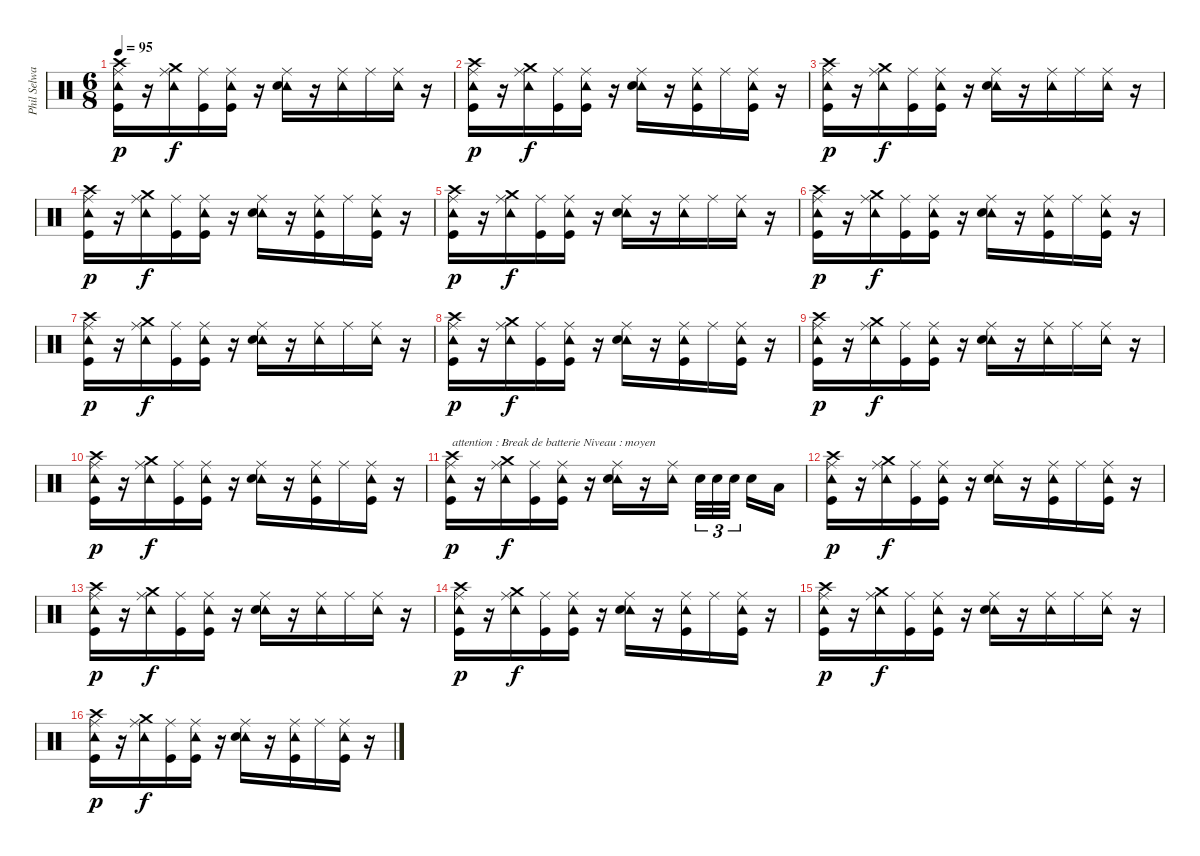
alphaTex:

\track ("Phil Selway (Percussions)" "Phil Selwa") {instrument percussion}
\staff {score}
\articulation defaults
\ts (6 8)
\tempo 95
\clef neutral
\ks c
("Ride (middle)" "Tambourine (hit)" "Crash high (hit)" "Kick (hit)").16{dy p} r.16 ("Ride (middle)" "Tambourine (hit)" "Crash medium (hit)").16{dy f} ("Ride (middle)" "Kick (hit)").16 ("Ride (middle)" "Tambourine (hit)" "Kick (hit)").16 r.16 ("Ride (middle)" "Tambourine (hit)" "Electric Snare (hit)").16 r.16 ("Ride (middle)" "Tambourine (hit)").16 "Ride (middle)".16 ("Ride (middle)" "Tambourine (hit)").16 r.16 |
("Ride (middle)" "Tambourine (hit)" "Crash high (hit)" "Kick (hit)").16{dy p} r.16 ("Ride (middle)" "Tambourine (hit)" "Crash medium (hit)").16{dy f} ("Ride (middle)" "Kick (hit)").16 ("Ride (middle)" "Tambourine (hit)" "Kick (hit)").16 r.16 ("Ride (middle)" "Tambourine (hit)" "Electric Snare (hit)").16 r.16 ("Ride (middle)" "Tambourine (hit)" "Kick (hit)").16 "Ride (middle)".16 ("Ride (middle)" "Tambourine (hit)" "Kick (hit)").16 r.16 |
("Ride (middle)" "Tambourine (hit)" "Crash high (hit)" "Kick (hit)").16{dy p} r.16 ("Ride (middle)" "Tambourine (hit)" "Crash medium (hit)").16{dy f} ("Ride (middle)" "Kick (hit)").16 ("Ride (middle)" "Tambourine (hit)" "Kick (hit)").16 r.16 ("Ride (middle)" "Tambourine (hit)" "Electric Snare (hit)").16 r.16 ("Ride (middle)" "Tambourine (hit)").16 "Ride (middle)".16 ("Ride (middle)" "Tambourine (hit)").16 r.16 |
("Ride (middle)" "Tambourine (hit)" "Crash high (hit)" "Kick (hit)").16{dy p} r.16 ("Ride (middle)" "Tambourine (hit)" "Crash medium (hit)").16{dy f} ("Ride (middle)" "Kick (hit)").16 ("Ride (middle)" "Tambourine (hit)" "Kick (hit)").16 r.16 ("Ride (middle)" "Tambourine (hit)" "Electric Snare (hit)").16 r.16 ("Ride (middle)" "Tambourine (hit)" "Kick (hit)").16 "Ride (middle)".16 ("Ride (middle)" "Tambourine (hit)" "Kick (hit)").16 r.16 |
("Ride (middle)" "Tambourine (hit)" "Crash high (hit)" "Kick (hit)").16{dy p} r.16 ("Ride (middle)" "Tambourine (hit)" "Crash medium (hit)").16{dy f} ("Ride (middle)" "Kick (hit)").16 ("Ride (middle)" "Tambourine (hit)" "Kick (hit)").16 r.16 ("Ride (middle)" "Tambourine (hit)" "Electric Snare (hit)").16 r.16 ("Ride (middle)" "Tambourine (hit)").16 "Ride (middle)".16 ("Ride (middle)" "Tambourine (hit)").16 r.16 |
("Ride (middle)" "Tambourine (hit)" "Crash high (hit)" "Kick (hit)").16{dy p} r.16 ("Ride (middle)" "Tambourine (hit)" "Crash medium (hit)").16{dy f} ("Ride (middle)" "Kick (hit)").16 ("Ride (middle)" "Tambourine (hit)" "Kick (hit)").16 r.16 ("Ride (middle)" "Tambourine (hit)" "Electric Snare (hit)").16 r.16 ("Ride (middle)" "Tambourine (hit)" "Kick (hit)").16 "Ride (middle)".16 ("Ride (middle)" "Tambourine (hit)" "Kick (hit)").16 r.16 |
("Ride (middle)" "Tambourine (hit)" "Crash high (hit)" "Kick (hit)").16{dy p} r.16 ("Ride (middle)" "Tambourine (hit)" "Crash medium (hit)").16{dy f} ("Ride (middle)" "Kick (hit)").16 ("Ride (middle)" "Tambourine (hit)" "Kick (hit)").16 r.16 ("Ride (middle)" "Tambourine (hit)" "Electric Snare (hit)").16 r.16 ("Ride (middle)" "Tambourine (hit)").16 "Ride (middle)".16 ("Ride (middle)" "Tambourine (hit)").16 r.16 |
("Ride (middle)" "Tambourine (hit)" "Crash high (hit)" "Kick (hit)").16{dy p} r.16 ("Ride (middle)" "Tambourine (hit)" "Crash medium (hit)").16{dy f} ("Ride (middle)" "Kick (hit)").16 ("Ride (middle)" "Tambourine (hit)" "Kick (hit)").16 r.16 ("Ride (middle)" "Tambourine (hit)" "Electric Snare (hit)").16 r.16 ("Ride (middle)" "Tambourine (hit)" "Kick (hit)").16 "Ride (middle)".16 ("Ride (middle)" "Tambourine (hit)" "Kick (hit)").16 r.16 |
("Ride (middle)" "Tambourine (hit)" "Crash high (hit)" "Kick (hit)").16{dy p} r.16 ("Ride (middle)" "Tambourine (hit)" "Crash medium (hit)").16{dy f} ("Ride (middle)" "Kick (hit)").16 ("Ride (middle)" "Tambourine (hit)" "Kick (hit)").16 r.16 ("Ride (middle)" "Tambourine (hit)" "Electric Snare (hit)").16 r.16 ("Ride (middle)" "Tambourine (hit)").16 "Ride (middle)".16 ("Ride (middle)" "Tambourine (hit)").16 r.16 |
("Ride (middle)" "Tambourine (hit)" "Crash high (hit)" "Kick (hit)").16{dy p} r.16 ("Ride (middle)" "Tambourine (hit)" "Crash medium (hit)").16{dy f} ("Ride (middle)" "Kick (hit)").16 ("Ride (middle)" "Tambourine (hit)" "Kick (hit)").16 r.16 ("Ride (middle)" "Tambourine (hit)" "Electric Snare (hit)").16 r.16 ("Ride (middle)" "Tambourine (hit)" "Kick (hit)").16 "Ride (middle)".16 ("Ride (middle)" "Tambourine (hit)" "Kick (hit)").16 r.16 |
("Ride (middle)" "Tambourine (hit)" "Crash high (hit)" "Kick (hit)").16{txt "attention : Break de batterie Niveau : moyen " dy p} r.16 ("Ride (middle)" "Tambourine (hit)" "Crash medium (hit)").16{dy f} ("Ride (middle)" "Kick (hit)").16 ("Ride (middle)" "Tambourine (hit)" "Kick (hit)").16 r.16 ("Ride (middle)" "Tambourine (hit)" "Electric Snare (hit)").16 r.16 ("Ride (middle)" "Tambourine (hit)").16{beam splitsecondary} "Electric Snare (hit)".32{tu (3 2)} "Electric Snare (hit)".32{tu (3 2)} "Electric Snare (hit)".32{tu (3 2) beam splitsecondary} "Snare (hit) 2".16 "Low Tom (hit)".16 |
("Ride (middle)" "Tambourine (hit)" "Crash high (hit)" "Kick (hit)").16{dy p} r.16 ("Ride (middle)" "Tambourine (hit)" "Crash medium (hit)").16{dy f} ("Ride (middle)" "Kick (hit)").16 ("Ride (middle)" "Tambourine (hit)" "Kick (hit)").16 r.16 ("Ride (middle)" "Tambourine (hit)" "Electric Snare (hit)").16 r.16 ("Ride (middle)" "Tambourine (hit)" "Kick (hit)").16 "Ride (middle)".16 ("Ride (middle)" "Tambourine (hit)" "Kick (hit)").16 r.16 |
("Ride (middle)" "Tambourine (hit)" "Crash high (hit)" "Kick (hit)").16{dy p} r.16 ("Ride (middle)" "Tambourine (hit)" "Crash medium (hit)").16{dy f} ("Ride (middle)" "Kick (hit)").16 ("Ride (middle)" "Tambourine (hit)" "Kick (hit)").16 r.16 ("Ride (middle)" "Tambourine (hit)" "Electric Snare (hit)").16 r.16 ("Ride (middle)" "Tambourine (hit)").16 "Ride (middle)".16 ("Ride (middle)" "Tambourine (hit)").16 r.16 |
("Ride (middle)" "Tambourine (hit)" "Crash high (hit)" "Kick (hit)").16{dy p} r.16 ("Ride (middle)" "Tambourine (hit)" "Crash medium (hit)").16{dy f} ("Ride (middle)" "Kick (hit)").16 ("Ride (middle)" "Tambourine (hit)" "Kick (hit)").16 r.16 ("Ride (middle)" "Tambourine (hit)" "Electric Snare (hit)").16 r.16 ("Ride (middle)" "Tambourine (hit)" "Kick (hit)").16 "Ride (middle)".16 ("Ride (middle)" "Tambourine (hit)" "Kick (hit)").16 r.16 |
("Ride (middle)" "Tambourine (hit)" "Crash high (hit)" "Kick (hit)").16{dy p} r.16 ("Ride (middle)" "Tambourine (hit)" "Crash medium (hit)").16{dy f} ("Ride (middle)" "Kick (hit)").16 ("Ride (middle)" "Tambourine (hit)" "Kick (hit)").16 r.16 ("Ride (middle)" "Tambourine (hit)" "Electric Snare (hit)").16 r.16 ("Ride (middle)" "Tambourine (hit)").16 "Ride (middle)".16 ("Ride (middle)" "Tambourine (hit)").16 r.16 |
("Ride (middle)" "Tambourine (hit)" "Crash high (hit)" "Kick (hit)").16{dy p} r.16 ("Ride (middle)" "Tambourine (hit)" "Crash medium (hit)").16{dy f} ("Ride (middle)" "Kick (hit)").16 ("Ride (middle)" "Tambourine (hit)" "Kick (hit)").16 r.16 ("Ride (middle)" "Tambourine (hit)" "Electric Snare (hit)").16 r.16 ("Ride (middle)" "Tambourine (hit)" "Kick (hit)").16 "Ride (middle)".16 ("Ride (middle)" "Tambourine (hit)" "Kick (hit)").16 r.16
